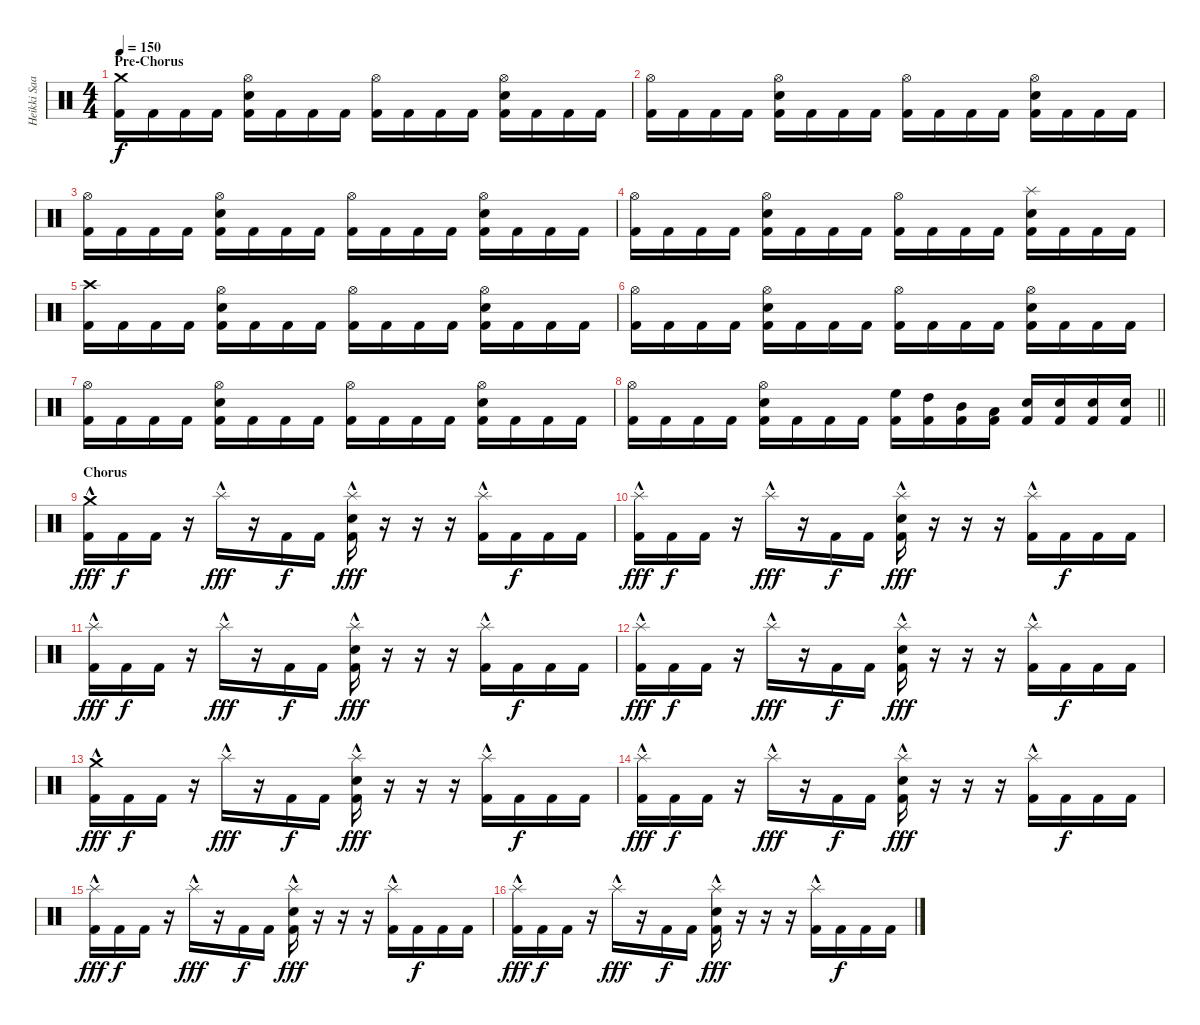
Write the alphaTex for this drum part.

\track ("Heikki Saari" "Heikki Saa") {instrument percussion}
\staff {score}
\articulation defaults
\ts (4 4)
\section ("" "Pre-Chorus")
\tempo 150
\clef neutral
\ks c
("Kick (hit) 2" "Crash medium (hit)").16{dy f} "Kick (hit) 2".16 "Kick (hit) 2".16 "Kick (hit) 2".16 ("Kick (hit) 2" "Electric Snare (hit)" "Hi-Hat (open)").16 "Kick (hit) 2".16 "Kick (hit) 2".16 "Kick (hit) 2".16 ("Kick (hit) 2" "Hi-Hat (open)").16 "Kick (hit) 2".16 "Kick (hit) 2".16 "Kick (hit) 2".16 ("Kick (hit) 2" "Electric Snare (hit)" "Hi-Hat (open)").16 "Kick (hit) 2".16 "Kick (hit) 2".16 "Kick (hit) 2".16 |
("Kick (hit) 2" "Hi-Hat (open)").16 "Kick (hit) 2".16 "Kick (hit) 2".16 "Kick (hit) 2".16 ("Kick (hit) 2" "Electric Snare (hit)" "Hi-Hat (open)").16 "Kick (hit) 2".16 "Kick (hit) 2".16 "Kick (hit) 2".16 ("Kick (hit) 2" "Hi-Hat (open)").16 "Kick (hit) 2".16 "Kick (hit) 2".16 "Kick (hit) 2".16 ("Kick (hit) 2" "Electric Snare (hit)" "Hi-Hat (open)").16 "Kick (hit) 2".16 "Kick (hit) 2".16 "Kick (hit) 2".16 |
("Kick (hit) 2" "Hi-Hat (open)").16 "Kick (hit) 2".16 "Kick (hit) 2".16 "Kick (hit) 2".16 ("Kick (hit) 2" "Electric Snare (hit)" "Hi-Hat (open)").16 "Kick (hit) 2".16 "Kick (hit) 2".16 "Kick (hit) 2".16 ("Kick (hit) 2" "Hi-Hat (open)").16 "Kick (hit) 2".16 "Kick (hit) 2".16 "Kick (hit) 2".16 ("Kick (hit) 2" "Electric Snare (hit)" "Hi-Hat (open)").16 "Kick (hit) 2".16 "Kick (hit) 2".16 "Kick (hit) 2".16 |
("Kick (hit) 2" "Hi-Hat (open)").16 "Kick (hit) 2".16 "Kick (hit) 2".16 "Kick (hit) 2".16 ("Kick (hit) 2" "Electric Snare (hit)" "Hi-Hat (open)").16 "Kick (hit) 2".16 "Kick (hit) 2".16 "Kick (hit) 2".16 ("Kick (hit) 2" "Hi-Hat (open)").16 "Kick (hit) 2".16 "Kick (hit) 2".16 "Kick (hit) 2".16 ("Kick (hit) 2" "Electric Snare (hit)" "Splash (hit)").16 "Kick (hit) 2".16 "Kick (hit) 2".16 "Kick (hit) 2".16 |
("Kick (hit) 2" "Crash high (hit)").16 "Kick (hit) 2".16 "Kick (hit) 2".16 "Kick (hit) 2".16 ("Kick (hit) 2" "Electric Snare (hit)" "Hi-Hat (open)").16 "Kick (hit) 2".16 "Kick (hit) 2".16 "Kick (hit) 2".16 ("Kick (hit) 2" "Hi-Hat (open)").16 "Kick (hit) 2".16 "Kick (hit) 2".16 "Kick (hit) 2".16 ("Kick (hit) 2" "Electric Snare (hit)" "Hi-Hat (open)").16 "Kick (hit) 2".16 "Kick (hit) 2".16 "Kick (hit) 2".16 |
("Kick (hit) 2" "Hi-Hat (open)").16 "Kick (hit) 2".16 "Kick (hit) 2".16 "Kick (hit) 2".16 ("Kick (hit) 2" "Electric Snare (hit)" "Hi-Hat (open)").16 "Kick (hit) 2".16 "Kick (hit) 2".16 "Kick (hit) 2".16 ("Kick (hit) 2" "Hi-Hat (open)").16 "Kick (hit) 2".16 "Kick (hit) 2".16 "Kick (hit) 2".16 ("Kick (hit) 2" "Electric Snare (hit)" "Hi-Hat (open)").16 "Kick (hit) 2".16 "Kick (hit) 2".16 "Kick (hit) 2".16 |
("Kick (hit) 2" "Hi-Hat (open)").16 "Kick (hit) 2".16 "Kick (hit) 2".16 "Kick (hit) 2".16 ("Kick (hit) 2" "Electric Snare (hit)" "Hi-Hat (open)").16 "Kick (hit) 2".16 "Kick (hit) 2".16 "Kick (hit) 2".16 ("Kick (hit) 2" "Hi-Hat (open)").16 "Kick (hit) 2".16 "Kick (hit) 2".16 "Kick (hit) 2".16 ("Kick (hit) 2" "Electric Snare (hit)" "Hi-Hat (open)").16 "Kick (hit) 2".16 "Kick (hit) 2".16 "Kick (hit) 2".16 |
\barLineRight lightlight
("Kick (hit) 2" "Hi-Hat (open)").16 "Kick (hit) 2".16 "Kick (hit) 2".16 "Kick (hit) 2".16 ("Kick (hit) 2" "Electric Snare (hit)" "Hi-Hat (open)").16 "Kick (hit) 2".16 "Kick (hit) 2".16 "Kick (hit) 2".16 ("Kick (hit) 2" "High Floor Tom (hit)").16 ("Kick (hit) 2" "High Tom (hit)").16 ("Kick (hit) 2" "Mid Tom (hit)").16 ("Kick (hit) 2" "Low Tom (hit)").16 ("Kick (hit) 2" "Electric Snare (hit)").16 ("Kick (hit) 2" "Electric Snare (hit)").16 ("Kick (hit) 2" "Electric Snare (hit)").16 ("Kick (hit) 2" "Electric Snare (hit)").16 |
\section ("" "Chorus")
("Crash medium (hit)"{hac} "Kick (hit) 2").16{dy fff} "Kick (hit) 2".16{dy f} "Kick (hit) 2".16 r.16 "Splash (hit)"{hac}.16{dy fff} r.16 "Kick (hit) 2".16{dy f} "Kick (hit) 2".16 ("Splash (hit)"{hac} "Electric Snare (hit)" "Kick (hit) 2").16{dy fff} r.16 r.16 r.16 ("Splash (hit)"{hac} "Kick (hit) 2").16 "Kick (hit) 2".16{dy f} "Kick (hit) 2".16 "Kick (hit) 2".16 |
("Splash (hit)"{hac} "Kick (hit) 2").16{dy fff} "Kick (hit) 2".16{dy f} "Kick (hit) 2".16 r.16 "Splash (hit)"{hac}.16{dy fff} r.16 "Kick (hit) 2".16{dy f} "Kick (hit) 2".16 ("Splash (hit)"{hac} "Electric Snare (hit)" "Kick (hit) 2").16{dy fff} r.16 r.16 r.16 ("Splash (hit)"{hac} "Kick (hit) 2").16 "Kick (hit) 2".16{dy f} "Kick (hit) 2".16 "Kick (hit) 2".16 |
("Splash (hit)"{hac} "Kick (hit) 2").16{dy fff} "Kick (hit) 2".16{dy f} "Kick (hit) 2".16 r.16 "Splash (hit)"{hac}.16{dy fff} r.16 "Kick (hit) 2".16{dy f} "Kick (hit) 2".16 ("Splash (hit)"{hac} "Electric Snare (hit)" "Kick (hit) 2").16{dy fff} r.16 r.16 r.16 ("Splash (hit)"{hac} "Kick (hit) 2").16 "Kick (hit) 2".16{dy f} "Kick (hit) 2".16 "Kick (hit) 2".16 |
("Splash (hit)"{hac} "Kick (hit) 2").16{dy fff} "Kick (hit) 2".16{dy f} "Kick (hit) 2".16 r.16 "Splash (hit)"{hac}.16{dy fff} r.16 "Kick (hit) 2".16{dy f} "Kick (hit) 2".16 ("Splash (hit)"{hac} "Electric Snare (hit)" "Kick (hit) 2").16{dy fff} r.16 r.16 r.16 ("Splash (hit)"{hac} "Kick (hit) 2").16 "Kick (hit) 2".16{dy f} "Kick (hit) 2".16 "Kick (hit) 2".16 |
("Crash medium (hit)"{hac} "Kick (hit) 2").16{dy fff} "Kick (hit) 2".16{dy f} "Kick (hit) 2".16 r.16 "Splash (hit)"{hac}.16{dy fff} r.16 "Kick (hit) 2".16{dy f} "Kick (hit) 2".16 ("Splash (hit)"{hac} "Electric Snare (hit)" "Kick (hit) 2").16{dy fff} r.16 r.16 r.16 ("Splash (hit)"{hac} "Kick (hit) 2").16 "Kick (hit) 2".16{dy f} "Kick (hit) 2".16 "Kick (hit) 2".16 |
("Splash (hit)"{hac} "Kick (hit) 2").16{dy fff} "Kick (hit) 2".16{dy f} "Kick (hit) 2".16 r.16 "Splash (hit)"{hac}.16{dy fff} r.16 "Kick (hit) 2".16{dy f} "Kick (hit) 2".16 ("Splash (hit)"{hac} "Electric Snare (hit)" "Kick (hit) 2").16{dy fff} r.16 r.16 r.16 ("Splash (hit)"{hac} "Kick (hit) 2").16 "Kick (hit) 2".16{dy f} "Kick (hit) 2".16 "Kick (hit) 2".16 |
("Splash (hit)"{hac} "Kick (hit) 2").16{dy fff} "Kick (hit) 2".16{dy f} "Kick (hit) 2".16 r.16 "Splash (hit)"{hac}.16{dy fff} r.16 "Kick (hit) 2".16{dy f} "Kick (hit) 2".16 ("Splash (hit)"{hac} "Electric Snare (hit)" "Kick (hit) 2").16{dy fff} r.16 r.16 r.16 ("Splash (hit)"{hac} "Kick (hit) 2").16 "Kick (hit) 2".16{dy f} "Kick (hit) 2".16 "Kick (hit) 2".16 |
("Splash (hit)"{hac} "Kick (hit) 2").16{dy fff} "Kick (hit) 2".16{dy f} "Kick (hit) 2".16 r.16 "Splash (hit)"{hac}.16{dy fff} r.16 "Kick (hit) 2".16{dy f} "Kick (hit) 2".16 ("Splash (hit)"{hac} "Electric Snare (hit)" "Kick (hit) 2").16{dy fff} r.16 r.16 r.16 ("Splash (hit)"{hac} "Kick (hit) 2").16 "Kick (hit) 2".16{dy f} "Kick (hit) 2".16 "Kick (hit) 2".16
